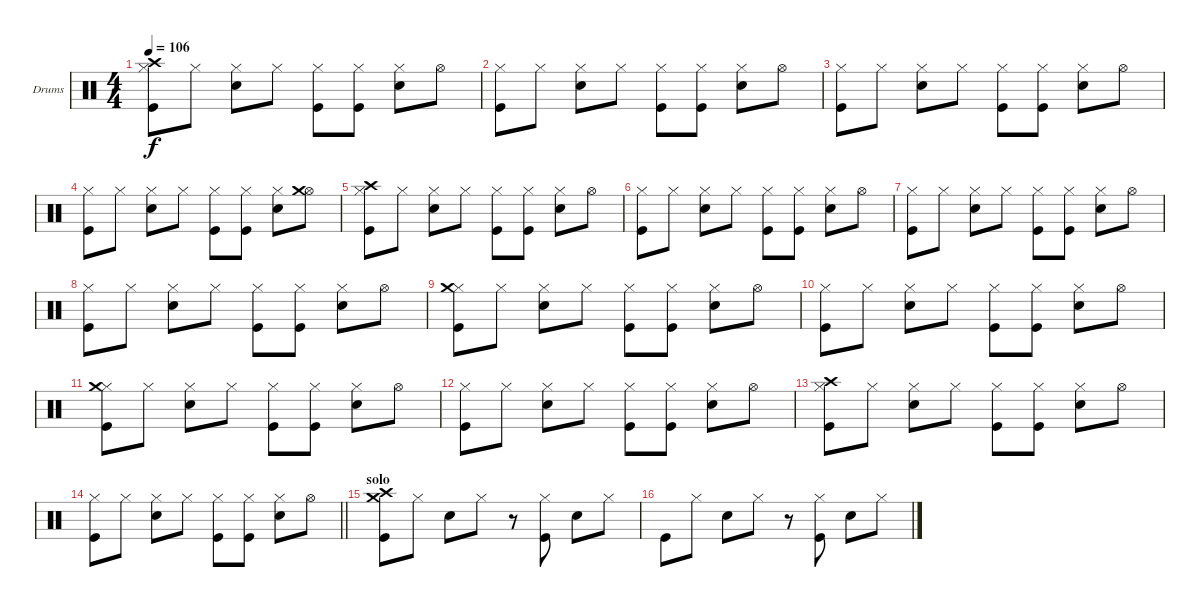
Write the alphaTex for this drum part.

\bracketExtendMode groupsimilarinstruments
\firstSystemTrackNameOrientation horizontal
\otherSystemsTrackNameOrientation horizontal
\track ("Drumkit" "Drums") {instrument percussion}
\staff {score}
\articulation defaults
\ts (4 4)
\tempo 106
\clef neutral
\ks c
("Hi-Hat (closed)" "Crash high (hit)" "Kick (hit)").8{dy f} "Hi-Hat (closed)".8 ("Hi-Hat (closed)" "Snare (hit) 2").8 "Hi-Hat (closed)".8 ("Hi-Hat (closed)" "Kick (hit)").8 ("Hi-Hat (closed)" "Kick (hit)").8 ("Hi-Hat (closed)" "Snare (hit) 2").8 "Hi-Hat (open)".8 |
("Hi-Hat (closed)" "Kick (hit)").8 "Hi-Hat (closed)".8 ("Hi-Hat (closed)" "Snare (hit) 2").8 "Hi-Hat (closed)".8 ("Hi-Hat (closed)" "Kick (hit)").8 ("Hi-Hat (closed)" "Kick (hit)").8 ("Hi-Hat (closed)" "Snare (hit) 2").8 "Hi-Hat (open)".8 |
("Hi-Hat (closed)" "Kick (hit)").8 "Hi-Hat (closed)".8 ("Hi-Hat (closed)" "Snare (hit) 2").8 "Hi-Hat (closed)".8 ("Hi-Hat (closed)" "Kick (hit)").8 ("Hi-Hat (closed)" "Kick (hit)").8 ("Hi-Hat (closed)" "Snare (hit) 2").8 "Hi-Hat (open)".8 |
("Hi-Hat (closed)" "Kick (hit)").8 "Hi-Hat (closed)".8 ("Hi-Hat (closed)" "Snare (hit) 2").8 "Hi-Hat (closed)".8 ("Hi-Hat (closed)" "Kick (hit)").8 ("Hi-Hat (closed)" "Kick (hit)").8 ("Hi-Hat (closed)" "Snare (hit) 2").8 ("Hi-Hat (open)" "Crash medium (hit)").8 |
("Hi-Hat (closed)" "Crash high (hit)" "Kick (hit)").8 "Hi-Hat (closed)".8 ("Hi-Hat (closed)" "Snare (hit) 2").8 "Hi-Hat (closed)".8 ("Hi-Hat (closed)" "Kick (hit)").8 ("Hi-Hat (closed)" "Kick (hit)").8 ("Hi-Hat (closed)" "Snare (hit) 2").8 "Hi-Hat (open)".8 |
("Hi-Hat (closed)" "Kick (hit)").8 "Hi-Hat (closed)".8 ("Hi-Hat (closed)" "Snare (hit) 2").8 "Hi-Hat (closed)".8 ("Hi-Hat (closed)" "Kick (hit)").8 ("Hi-Hat (closed)" "Kick (hit)").8 ("Hi-Hat (closed)" "Snare (hit) 2").8 "Hi-Hat (open)".8 |
("Hi-Hat (closed)" "Kick (hit)").8 "Hi-Hat (closed)".8 ("Hi-Hat (closed)" "Snare (hit) 2").8 "Hi-Hat (closed)".8 ("Hi-Hat (closed)" "Kick (hit)").8 ("Hi-Hat (closed)" "Kick (hit)").8 ("Hi-Hat (closed)" "Snare (hit) 2").8 "Hi-Hat (open)".8 |
("Hi-Hat (closed)" "Kick (hit)").8 "Hi-Hat (closed)".8 ("Hi-Hat (closed)" "Snare (hit) 2").8 "Hi-Hat (closed)".8 ("Hi-Hat (closed)" "Kick (hit)").8 ("Hi-Hat (closed)" "Kick (hit)").8 ("Hi-Hat (closed)" "Snare (hit) 2").8 "Hi-Hat (open)".8 |
("Hi-Hat (closed)" "Crash medium (hit)" "Kick (hit)").8 "Hi-Hat (closed)".8 ("Hi-Hat (closed)" "Snare (hit) 2").8 "Hi-Hat (closed)".8 ("Hi-Hat (closed)" "Kick (hit)").8 ("Hi-Hat (closed)" "Kick (hit)").8 ("Hi-Hat (closed)" "Snare (hit) 2").8 "Hi-Hat (open)".8 |
("Hi-Hat (closed)" "Kick (hit)").8 "Hi-Hat (closed)".8 ("Hi-Hat (closed)" "Snare (hit) 2").8 "Hi-Hat (closed)".8 ("Hi-Hat (closed)" "Kick (hit)").8 ("Hi-Hat (closed)" "Kick (hit)").8 ("Hi-Hat (closed)" "Snare (hit) 2").8 "Hi-Hat (open)".8 |
("Hi-Hat (closed)" "Crash medium (hit)" "Kick (hit)").8 "Hi-Hat (closed)".8 ("Hi-Hat (closed)" "Snare (hit) 2").8 "Hi-Hat (closed)".8 ("Hi-Hat (closed)" "Kick (hit)").8 ("Hi-Hat (closed)" "Kick (hit)").8 ("Hi-Hat (closed)" "Snare (hit) 2").8 "Hi-Hat (open)".8 |
("Hi-Hat (closed)" "Kick (hit)").8 "Hi-Hat (closed)".8 ("Hi-Hat (closed)" "Snare (hit) 2").8 "Hi-Hat (closed)".8 ("Hi-Hat (closed)" "Kick (hit)").8 ("Hi-Hat (closed)" "Kick (hit)").8 ("Hi-Hat (closed)" "Snare (hit) 2").8 "Hi-Hat (open)".8 |
("Hi-Hat (closed)" "Crash high (hit)" "Kick (hit)").8 "Hi-Hat (closed)".8 ("Hi-Hat (closed)" "Snare (hit) 2").8 "Hi-Hat (closed)".8 ("Hi-Hat (closed)" "Kick (hit)").8 ("Hi-Hat (closed)" "Kick (hit)").8 ("Hi-Hat (closed)" "Snare (hit) 2").8 "Hi-Hat (open)".8 |
\barLineRight lightlight
("Hi-Hat (closed)" "Kick (hit)").8 "Hi-Hat (closed)".8 ("Hi-Hat (closed)" "Snare (hit) 2").8 "Hi-Hat (closed)".8 ("Hi-Hat (closed)" "Kick (hit)").8 ("Hi-Hat (closed)" "Kick (hit)").8 ("Hi-Hat (closed)" "Snare (hit) 2").8 "Hi-Hat (open)".8 |
\section ("" "solo")
("Crash high (hit)" "Crash medium (hit)" "Kick (hit)").8 "Hi-Hat (closed)".8 "Snare (hit) 2".8 "Hi-Hat (closed)".8 r.8 ("Hi-Hat (closed)" "Kick (hit)").8 "Snare (hit) 2".8 "Hi-Hat (closed)".8 |
"Kick (hit)".8 "Hi-Hat (closed)".8 "Snare (hit) 2".8 "Hi-Hat (closed)".8 r.8 ("Hi-Hat (closed)" "Kick (hit)").8 "Snare (hit) 2".8 "Hi-Hat (closed)".8
